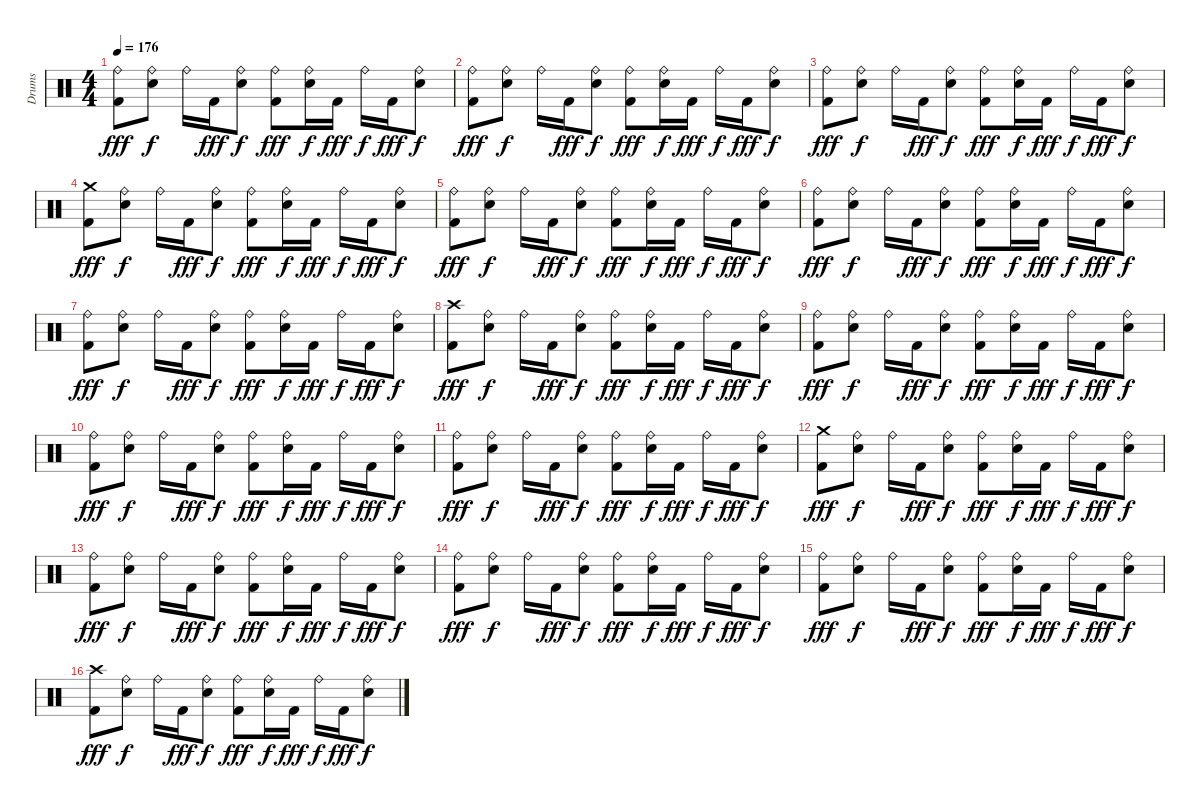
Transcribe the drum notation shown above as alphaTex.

\track ("Drums" "Drums") {instrument percussion}
\staff {score}
\articulation defaults
\ts (4 4)
\tempo 176
\clef neutral
\ks c
("Ride (bell)" "Kick (hit) 2").8{dy fff} ("Ride (bell)" "Snare (hit) 2").8{dy f} "Ride (bell)".16 "Kick (hit) 2".16{dy fff} ("Ride (bell)" "Snare (hit) 2").8{dy f} ("Ride (bell)" "Kick (hit) 2").8{dy fff} ("Ride (bell)" "Snare (hit) 2").16{dy f} "Kick (hit) 2".16{dy fff} "Ride (bell)".16{dy f} "Kick (hit) 2".16{dy fff} ("Ride (bell)" "Snare (hit) 2").8{dy f} |
("Ride (bell)" "Kick (hit) 2").8{dy fff} ("Ride (bell)" "Snare (hit) 2").8{dy f} "Ride (bell)".16 "Kick (hit) 2".16{dy fff} ("Ride (bell)" "Snare (hit) 2").8{dy f} ("Ride (bell)" "Kick (hit) 2").8{dy fff} ("Ride (bell)" "Snare (hit) 2").16{dy f} "Kick (hit) 2".16{dy fff} "Ride (bell)".16{dy f} "Kick (hit) 2".16{dy fff} ("Ride (bell)" "Snare (hit) 2").8{dy f} |
("Ride (bell)" "Kick (hit) 2").8{dy fff} ("Ride (bell)" "Snare (hit) 2").8{dy f} "Ride (bell)".16 "Kick (hit) 2".16{dy fff} ("Ride (bell)" "Snare (hit) 2").8{dy f} ("Ride (bell)" "Kick (hit) 2").8{dy fff} ("Ride (bell)" "Snare (hit) 2").16{dy f} "Kick (hit) 2".16{dy fff} "Ride (bell)".16{dy f} "Kick (hit) 2".16{dy fff} ("Ride (bell)" "Snare (hit) 2").8{dy f} |
("Crash medium (hit)" "Kick (hit) 2").8{dy fff} ("Ride (bell)" "Snare (hit) 2").8{dy f} "Ride (bell)".16 "Kick (hit) 2".16{dy fff} ("Ride (bell)" "Snare (hit) 2").8{dy f} ("Ride (bell)" "Kick (hit) 2").8{dy fff} ("Ride (bell)" "Snare (hit) 2").16{dy f} "Kick (hit) 2".16{dy fff} "Ride (bell)".16{dy f} "Kick (hit) 2".16{dy fff} ("Ride (bell)" "Snare (hit) 2").8{dy f} |
("Ride (bell)" "Kick (hit) 2").8{dy fff} ("Ride (bell)" "Snare (hit) 2").8{dy f} "Ride (bell)".16 "Kick (hit) 2".16{dy fff} ("Ride (bell)" "Snare (hit) 2").8{dy f} ("Ride (bell)" "Kick (hit) 2").8{dy fff} ("Ride (bell)" "Snare (hit) 2").16{dy f} "Kick (hit) 2".16{dy fff} "Ride (bell)".16{dy f} "Kick (hit) 2".16{dy fff} ("Ride (bell)" "Snare (hit) 2").8{dy f} |
("Ride (bell)" "Kick (hit) 2").8{dy fff} ("Ride (bell)" "Snare (hit) 2").8{dy f} "Ride (bell)".16 "Kick (hit) 2".16{dy fff} ("Ride (bell)" "Snare (hit) 2").8{dy f} ("Ride (bell)" "Kick (hit) 2").8{dy fff} ("Ride (bell)" "Snare (hit) 2").16{dy f} "Kick (hit) 2".16{dy fff} "Ride (bell)".16{dy f} "Kick (hit) 2".16{dy fff} ("Ride (bell)" "Snare (hit) 2").8{dy f} |
("Ride (bell)" "Kick (hit) 2").8{dy fff} ("Ride (bell)" "Snare (hit) 2").8{dy f} "Ride (bell)".16 "Kick (hit) 2".16{dy fff} ("Ride (bell)" "Snare (hit) 2").8{dy f} ("Ride (bell)" "Kick (hit) 2").8{dy fff} ("Ride (bell)" "Snare (hit) 2").16{dy f} "Kick (hit) 2".16{dy fff} "Ride (bell)".16{dy f} "Kick (hit) 2".16{dy fff} ("Ride (bell)" "Snare (hit) 2").8{dy f} |
("Crash high (hit)" "Kick (hit) 2").8{dy fff} ("Ride (bell)" "Snare (hit) 2").8{dy f} "Ride (bell)".16 "Kick (hit) 2".16{dy fff} ("Ride (bell)" "Snare (hit) 2").8{dy f} ("Ride (bell)" "Kick (hit) 2").8{dy fff} ("Ride (bell)" "Snare (hit) 2").16{dy f} "Kick (hit) 2".16{dy fff} "Ride (bell)".16{dy f} "Kick (hit) 2".16{dy fff} ("Ride (bell)" "Snare (hit) 2").8{dy f} |
("Ride (bell)" "Kick (hit) 2").8{dy fff} ("Ride (bell)" "Snare (hit) 2").8{dy f} "Ride (bell)".16 "Kick (hit) 2".16{dy fff} ("Ride (bell)" "Snare (hit) 2").8{dy f} ("Ride (bell)" "Kick (hit) 2").8{dy fff} ("Ride (bell)" "Snare (hit) 2").16{dy f} "Kick (hit) 2".16{dy fff} "Ride (bell)".16{dy f} "Kick (hit) 2".16{dy fff} ("Ride (bell)" "Snare (hit) 2").8{dy f} |
("Ride (bell)" "Kick (hit) 2").8{dy fff} ("Ride (bell)" "Snare (hit) 2").8{dy f} "Ride (bell)".16 "Kick (hit) 2".16{dy fff} ("Ride (bell)" "Snare (hit) 2").8{dy f} ("Ride (bell)" "Kick (hit) 2").8{dy fff} ("Ride (bell)" "Snare (hit) 2").16{dy f} "Kick (hit) 2".16{dy fff} "Ride (bell)".16{dy f} "Kick (hit) 2".16{dy fff} ("Ride (bell)" "Snare (hit) 2").8{dy f} |
("Ride (bell)" "Kick (hit) 2").8{dy fff} ("Ride (bell)" "Snare (hit) 2").8{dy f} "Ride (bell)".16 "Kick (hit) 2".16{dy fff} ("Ride (bell)" "Snare (hit) 2").8{dy f} ("Ride (bell)" "Kick (hit) 2").8{dy fff} ("Ride (bell)" "Snare (hit) 2").16{dy f} "Kick (hit) 2".16{dy fff} "Ride (bell)".16{dy f} "Kick (hit) 2".16{dy fff} ("Ride (bell)" "Snare (hit) 2").8{dy f} |
("Crash medium (hit)" "Kick (hit) 2").8{dy fff} ("Ride (bell)" "Snare (hit) 2").8{dy f} "Ride (bell)".16 "Kick (hit) 2".16{dy fff} ("Ride (bell)" "Snare (hit) 2").8{dy f} ("Ride (bell)" "Kick (hit) 2").8{dy fff} ("Ride (bell)" "Snare (hit) 2").16{dy f} "Kick (hit) 2".16{dy fff} "Ride (bell)".16{dy f} "Kick (hit) 2".16{dy fff} ("Ride (bell)" "Snare (hit) 2").8{dy f} |
("Ride (bell)" "Kick (hit) 2").8{dy fff} ("Ride (bell)" "Snare (hit) 2").8{dy f} "Ride (bell)".16 "Kick (hit) 2".16{dy fff} ("Ride (bell)" "Snare (hit) 2").8{dy f} ("Ride (bell)" "Kick (hit) 2").8{dy fff} ("Ride (bell)" "Snare (hit) 2").16{dy f} "Kick (hit) 2".16{dy fff} "Ride (bell)".16{dy f} "Kick (hit) 2".16{dy fff} ("Ride (bell)" "Snare (hit) 2").8{dy f} |
("Ride (bell)" "Kick (hit) 2").8{dy fff} ("Ride (bell)" "Snare (hit) 2").8{dy f} "Ride (bell)".16 "Kick (hit) 2".16{dy fff} ("Ride (bell)" "Snare (hit) 2").8{dy f} ("Ride (bell)" "Kick (hit) 2").8{dy fff} ("Ride (bell)" "Snare (hit) 2").16{dy f} "Kick (hit) 2".16{dy fff} "Ride (bell)".16{dy f} "Kick (hit) 2".16{dy fff} ("Ride (bell)" "Snare (hit) 2").8{dy f} |
("Ride (bell)" "Kick (hit) 2").8{dy fff} ("Ride (bell)" "Snare (hit) 2").8{dy f} "Ride (bell)".16 "Kick (hit) 2".16{dy fff} ("Ride (bell)" "Snare (hit) 2").8{dy f} ("Ride (bell)" "Kick (hit) 2").8{dy fff} ("Ride (bell)" "Snare (hit) 2").16{dy f} "Kick (hit) 2".16{dy fff} "Ride (bell)".16{dy f} "Kick (hit) 2".16{dy fff} ("Ride (bell)" "Snare (hit) 2").8{dy f} |
("Crash high (hit)" "Kick (hit) 2").8{dy fff} ("Ride (bell)" "Snare (hit) 2").8{dy f} "Ride (bell)".16 "Kick (hit) 2".16{dy fff} ("Ride (bell)" "Snare (hit) 2").8{dy f} ("Ride (bell)" "Kick (hit) 2").8{dy fff} ("Ride (bell)" "Snare (hit) 2").16{dy f} "Kick (hit) 2".16{dy fff} "Ride (bell)".16{dy f} "Kick (hit) 2".16{dy fff} ("Ride (bell)" "Snare (hit) 2").8{dy f}
